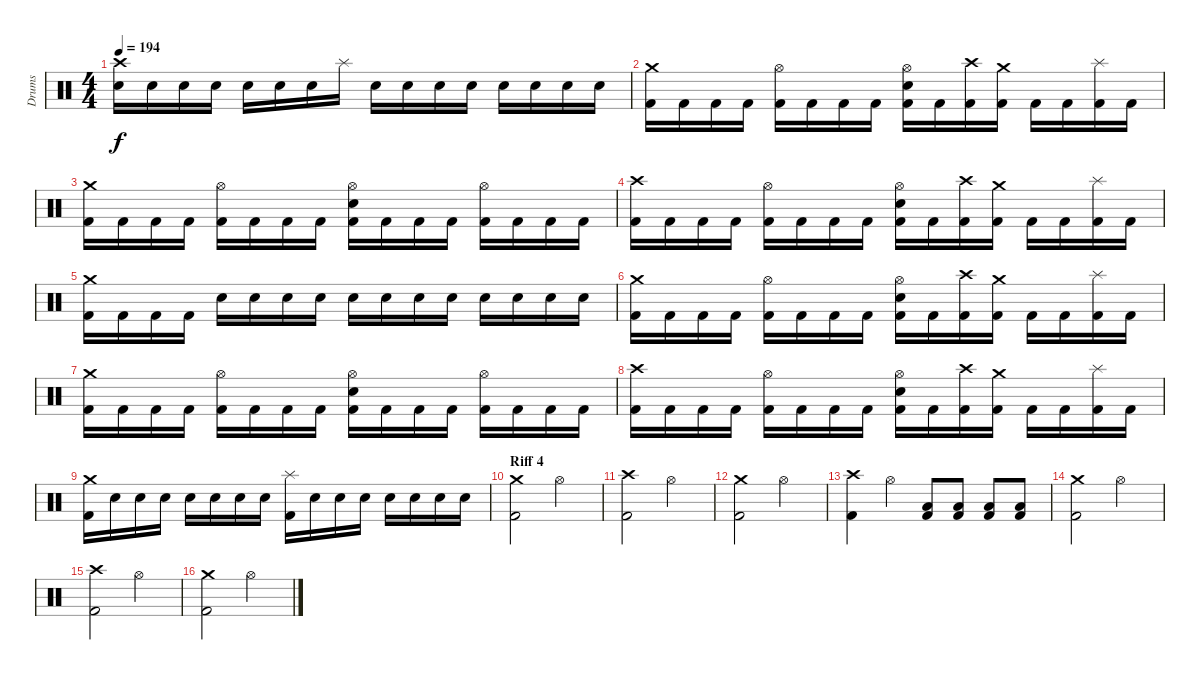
\track ("Drums" "Drums") {instrument percussion}
\staff {score}
\articulation defaults
\ts (4 4)
\tempo 194
\clef neutral
\ks c
("Crash high (hit)" "Electric Snare (hit)").16{dy f} "Electric Snare (hit)".16 "Electric Snare (hit)".16 "Electric Snare (hit)".16 "Electric Snare (hit)".16 "Electric Snare (hit)".16 "Electric Snare (hit)".16 "Splash (hit)".16 "Electric Snare (hit)".16 "Electric Snare (hit)".16 "Electric Snare (hit)".16 "Electric Snare (hit)".16 "Electric Snare (hit)".16 "Electric Snare (hit)".16 "Electric Snare (hit)".16 "Electric Snare (hit)".16 |
("Crash medium (hit)" "Kick (hit) 2").16 "Kick (hit) 2".16 "Kick (hit) 2".16 "Kick (hit) 2".16 ("Hi-Hat (open)" "Kick (hit) 2").16 "Kick (hit) 2".16 "Kick (hit) 2".16 "Kick (hit) 2".16 ("Hi-Hat (open)" "Electric Snare (hit)" "Kick (hit) 2").16 "Kick (hit) 2".16 ("Crash high (hit)" "Kick (hit) 2").16 ("Crash medium (hit)" "Kick (hit) 2").16 "Kick (hit) 2".16 "Kick (hit) 2".16 ("Splash (hit)" "Kick (hit) 2").16 "Kick (hit) 2".16 |
("Crash medium (hit)" "Kick (hit) 2").16 "Kick (hit) 2".16 "Kick (hit) 2".16 "Kick (hit) 2".16 ("Hi-Hat (open)" "Kick (hit) 2").16 "Kick (hit) 2".16 "Kick (hit) 2".16 "Kick (hit) 2".16 ("Hi-Hat (open)" "Electric Snare (hit)" "Kick (hit) 2").16 "Kick (hit) 2".16 "Kick (hit) 2".16 "Kick (hit) 2".16 ("Hi-Hat (open)" "Kick (hit) 2").16 "Kick (hit) 2".16 "Kick (hit) 2".16 "Kick (hit) 2".16 |
("Crash high (hit)" "Kick (hit) 2").16 "Kick (hit) 2".16 "Kick (hit) 2".16 "Kick (hit) 2".16 ("Hi-Hat (open)" "Kick (hit) 2").16 "Kick (hit) 2".16 "Kick (hit) 2".16 "Kick (hit) 2".16 ("Hi-Hat (open)" "Electric Snare (hit)" "Kick (hit) 2").16 "Kick (hit) 2".16 ("Crash high (hit)" "Kick (hit) 2").16 ("Crash medium (hit)" "Kick (hit) 2").16 "Kick (hit) 2".16 "Kick (hit) 2".16 ("Splash (hit)" "Kick (hit) 2").16 "Kick (hit) 2".16 |
("Crash medium (hit)" "Kick (hit) 2").16 "Kick (hit) 2".16 "Kick (hit) 2".16 "Kick (hit) 2".16 "Electric Snare (hit)".16 "Electric Snare (hit)".16 "Electric Snare (hit)".16 "Electric Snare (hit)".16 "Electric Snare (hit)".16 "Electric Snare (hit)".16 "Electric Snare (hit)".16 "Electric Snare (hit)".16 "Electric Snare (hit)".16 "Electric Snare (hit)".16 "Electric Snare (hit)".16 "Electric Snare (hit)".16 |
("Crash medium (hit)" "Kick (hit) 2").16 "Kick (hit) 2".16 "Kick (hit) 2".16 "Kick (hit) 2".16 ("Hi-Hat (open)" "Kick (hit) 2").16 "Kick (hit) 2".16 "Kick (hit) 2".16 "Kick (hit) 2".16 ("Hi-Hat (open)" "Electric Snare (hit)" "Kick (hit) 2").16 "Kick (hit) 2".16 ("Crash high (hit)" "Kick (hit) 2").16 ("Crash medium (hit)" "Kick (hit) 2").16 "Kick (hit) 2".16 "Kick (hit) 2".16 ("Splash (hit)" "Kick (hit) 2").16 "Kick (hit) 2".16 |
("Crash medium (hit)" "Kick (hit) 2").16 "Kick (hit) 2".16 "Kick (hit) 2".16 "Kick (hit) 2".16 ("Hi-Hat (open)" "Kick (hit) 2").16 "Kick (hit) 2".16 "Kick (hit) 2".16 "Kick (hit) 2".16 ("Hi-Hat (open)" "Electric Snare (hit)" "Kick (hit) 2").16 "Kick (hit) 2".16 "Kick (hit) 2".16 "Kick (hit) 2".16 ("Hi-Hat (open)" "Kick (hit) 2").16 "Kick (hit) 2".16 "Kick (hit) 2".16 "Kick (hit) 2".16 |
("Crash high (hit)" "Kick (hit) 2").16 "Kick (hit) 2".16 "Kick (hit) 2".16 "Kick (hit) 2".16 ("Hi-Hat (open)" "Kick (hit) 2").16 "Kick (hit) 2".16 "Kick (hit) 2".16 "Kick (hit) 2".16 ("Hi-Hat (open)" "Electric Snare (hit)" "Kick (hit) 2").16 "Kick (hit) 2".16 ("Crash high (hit)" "Kick (hit) 2").16 ("Crash medium (hit)" "Kick (hit) 2").16 "Kick (hit) 2".16 "Kick (hit) 2".16 ("Splash (hit)" "Kick (hit) 2").16 "Kick (hit) 2".16 |
("Crash medium (hit)" "Kick (hit) 2").16 "Electric Snare (hit)".16 "Electric Snare (hit)".16 "Electric Snare (hit)".16 "Electric Snare (hit)".16 "Electric Snare (hit)".16 "Electric Snare (hit)".16 "Electric Snare (hit)".16 ("Splash (hit)" "Kick (hit) 2").16 "Electric Snare (hit)".16 "Electric Snare (hit)".16 "Electric Snare (hit)".16 "Electric Snare (hit)".16 "Electric Snare (hit)".16 "Electric Snare (hit)".16 "Electric Snare (hit)".16 |
\section ("" "Riff 4")
("Crash medium (hit)" "Kick (hit) 2").2 "Hi-Hat (open)".2 |
("Crash high (hit)" "Kick (hit) 2").2 "Hi-Hat (open)".2 |
("Crash medium (hit)" "Kick (hit) 2").2 "Hi-Hat (open)".2 |
("Crash high (hit)" "Kick (hit) 2").4 "Hi-Hat (open)".4 ("Low Tom (hit)" "Kick (hit) 2").8 ("Low Tom (hit)" "Kick (hit) 2").8 ("Low Tom (hit)" "Kick (hit) 2").8 ("Low Tom (hit)" "Kick (hit) 2").8 |
("Crash medium (hit)" "Kick (hit) 2").2 "Hi-Hat (open)".2 |
("Crash high (hit)" "Kick (hit) 2").2 "Hi-Hat (open)".2 |
("Crash medium (hit)" "Kick (hit) 2").2 "Hi-Hat (open)".2
